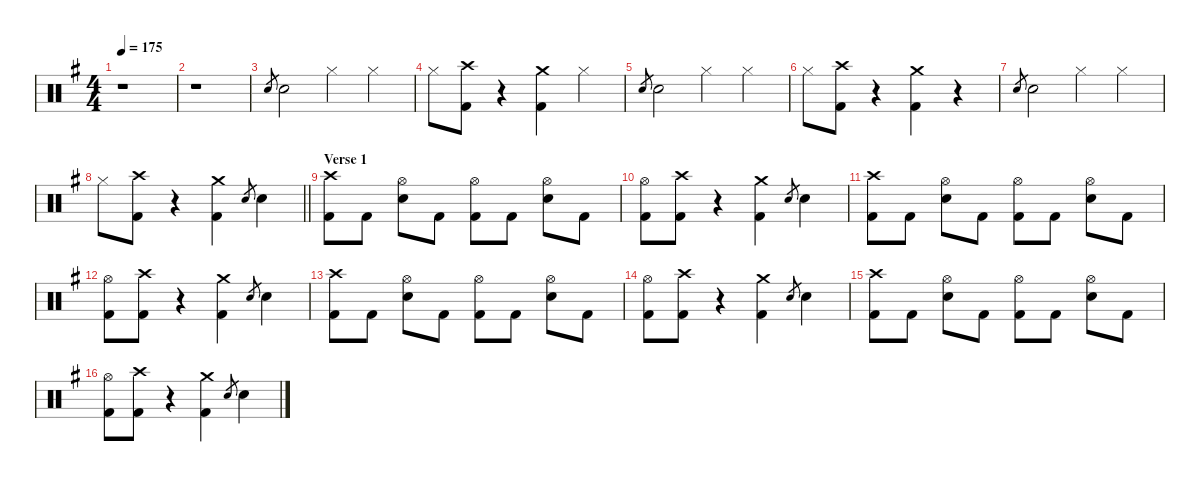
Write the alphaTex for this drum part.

\hideDynamics
\bracketExtendMode nobrackets
\singleTrackTrackNamePolicy hidden
\multiTrackTrackNamePolicy hidden
\firstSystemTrackNameMode fullname
\firstSystemTrackNameOrientation horizontal
\otherSystemsTrackNameOrientation horizontal
\track ("Drumkit" "Drums") {instrument percussion}
\staff {score}
\articulation defaults
\ts (4 4)
\beaming (8 2 2 2 2)
\tempo 175
\clef neutral
\ks g
r.1{dy mf beam Down} |
r.1{beam Down} |
"Snare (hit) 2"{acc forcenatural}.8{gr beam Up} "Snare (hit) 2"{acc forcenatural}.2{dy f beam Down} "Hi-Hat (closed)"{acc forcenatural}.4{beam Down} "Hi-Hat (closed)"{acc forcenatural}.4{beam Down} |
"Hi-Hat (closed)"{acc forcenatural}.8{beam Down} ("Crash high (hit)"{acc forcenatural} "Kick (hit) 2"{acc forcenatural}).8{beam Down} r.4{beam Down} ("Crash medium (hit)"{acc forcenatural} "Kick (hit) 2"{acc forcenatural}).4{beam Down} "Hi-Hat (closed)"{acc forcenatural}.4{beam Down} |
"Snare (hit) 2"{acc forcenatural}.8{gr dy mf beam Up} "Snare (hit) 2"{acc forcenatural}.2{dy f beam Down} "Hi-Hat (closed)"{acc forcenatural}.4{beam Down} "Hi-Hat (closed)"{acc forcenatural}.4{beam Down} |
"Hi-Hat (closed)"{acc forcenatural}.8{beam Down} ("Crash high (hit)"{acc forcenatural} "Kick (hit) 2"{acc forcenatural}).8{beam Down} r.4{beam Down} ("Crash medium (hit)"{acc forcenatural} "Kick (hit) 2"{acc forcenatural}).4{beam Down} r.4{beam Down} |
"Snare (hit) 2"{acc forcenatural}.8{gr dy mf beam Up} "Snare (hit) 2"{acc forcenatural}.2{dy f beam Down} "Hi-Hat (closed)"{acc forcenatural}.4{beam Down} "Hi-Hat (closed)"{acc forcenatural}.4{beam Down} |
\barLineRight lightlight "Hi-Hat (closed)"{acc forcenatural}.8{beam Down}
("Crash high (hit)"{acc forcenatural} "Kick (hit) 2"{acc forcenatural}).8{beam Down} r.4{beam Down} ("Crash medium (hit)"{acc forcenatural} "Kick (hit) 2"{acc forcenatural}).4{beam Down} "Snare (hit) 2"{acc forcenatural}.8{gr dy mf beam Up} "Snare (hit) 2"{acc forcenatural}.4{dy f beam Down} |
\section ("" "Verse 1")
("Crash high (hit)"{acc forcenatural} "Kick (hit) 2"{acc forcenatural}).8{beam Down} "Kick (hit) 2"{acc forcenatural}.8{dy fff beam Down} ("Hi-Hat (open)"{acc forcenatural} "Snare (hit) 2"{acc forcenatural}).8{dy f beam Down} "Kick (hit) 2"{acc forcenatural}.8{dy fff beam Down} ("Hi-Hat (open)"{acc forcenatural} "Kick (hit) 2"{acc forcenatural}).8{dy f beam Down} "Kick (hit) 2"{acc forcenatural}.8{dy fff beam Down} ("Hi-Hat (open)"{acc forcenatural} "Snare (hit) 2"{acc forcenatural}).8{dy f beam Down} "Kick (hit) 2"{acc forcenatural}.8{dy fff beam Down} |
("Hi-Hat (open)"{acc forcenatural} "Kick (hit) 2"{acc forcenatural}).8{dy f beam Down} ("Crash high (hit)"{acc forcenatural} "Kick (hit) 2"{acc forcenatural}).8{beam Down} r.4{beam Down} ("Crash medium (hit)"{acc forcenatural} "Kick (hit) 2"{acc forcenatural}).4{beam Down} "Snare (hit) 2"{acc forcenatural}.8{gr dy mf beam Up} "Snare (hit) 2"{acc forcenatural}.4{dy f beam Down} |
("Crash high (hit)"{acc forcenatural} "Kick (hit) 2"{acc forcenatural}).8{beam Down} "Kick (hit) 2"{acc forcenatural}.8{dy fff beam Down} ("Hi-Hat (open)"{acc forcenatural} "Snare (hit) 2"{acc forcenatural}).8{dy f beam Down} "Kick (hit) 2"{acc forcenatural}.8{dy fff beam Down} ("Hi-Hat (open)"{acc forcenatural} "Kick (hit) 2"{acc forcenatural}).8{dy f beam Down} "Kick (hit) 2"{acc forcenatural}.8{dy fff beam Down} ("Hi-Hat (open)"{acc forcenatural} "Snare (hit) 2"{acc forcenatural}).8{dy f beam Down} "Kick (hit) 2"{acc forcenatural}.8{dy fff beam Down} |
("Hi-Hat (open)"{acc forcenatural} "Kick (hit) 2"{acc forcenatural}).8{dy f beam Down} ("Crash high (hit)"{acc forcenatural} "Kick (hit) 2"{acc forcenatural}).8{beam Down} r.4{beam Down} ("Crash medium (hit)"{acc forcenatural} "Kick (hit) 2"{acc forcenatural}).4{beam Down} "Snare (hit) 2"{acc forcenatural}.8{gr dy mf beam Up} "Snare (hit) 2"{acc forcenatural}.4{dy f beam Down} |
("Crash high (hit)"{acc forcenatural} "Kick (hit) 2"{acc forcenatural}).8{beam Down} "Kick (hit) 2"{acc forcenatural}.8{dy fff beam Down} ("Hi-Hat (open)"{acc forcenatural} "Snare (hit) 2"{acc forcenatural}).8{dy f beam Down} "Kick (hit) 2"{acc forcenatural}.8{dy fff beam Down} ("Hi-Hat (open)"{acc forcenatural} "Kick (hit) 2"{acc forcenatural}).8{dy f beam Down} "Kick (hit) 2"{acc forcenatural}.8{dy fff beam Down} ("Hi-Hat (open)"{acc forcenatural} "Snare (hit) 2"{acc forcenatural}).8{dy f beam Down} "Kick (hit) 2"{acc forcenatural}.8{dy fff beam Down} |
("Hi-Hat (open)"{acc forcenatural} "Kick (hit) 2"{acc forcenatural}).8{dy f beam Down} ("Crash high (hit)"{acc forcenatural} "Kick (hit) 2"{acc forcenatural}).8{beam Down} r.4{beam Down} ("Crash medium (hit)"{acc forcenatural} "Kick (hit) 2"{acc forcenatural}).4{beam Down} "Snare (hit) 2"{acc forcenatural}.8{gr dy mf beam Up} "Snare (hit) 2"{acc forcenatural}.4{dy f beam Down} |
("Crash high (hit)"{acc forcenatural} "Kick (hit) 2"{acc forcenatural}).8{beam Down} "Kick (hit) 2"{acc forcenatural}.8{dy fff beam Down} ("Hi-Hat (open)"{acc forcenatural} "Snare (hit) 2"{acc forcenatural}).8{dy f beam Down} "Kick (hit) 2"{acc forcenatural}.8{dy fff beam Down} ("Hi-Hat (open)"{acc forcenatural} "Kick (hit) 2"{acc forcenatural}).8{dy f beam Down} "Kick (hit) 2"{acc forcenatural}.8{dy fff beam Down} ("Hi-Hat (open)"{acc forcenatural} "Snare (hit) 2"{acc forcenatural}).8{dy f beam Down} "Kick (hit) 2"{acc forcenatural}.8{dy fff beam Down} |
("Hi-Hat (open)"{acc forcenatural} "Kick (hit) 2"{acc forcenatural}).8{dy f beam Down} ("Crash high (hit)"{acc forcenatural} "Kick (hit) 2"{acc forcenatural}).8{beam Down} r.4{beam Down} ("Crash medium (hit)"{acc forcenatural} "Kick (hit) 2"{acc forcenatural}).4{beam Down} "Snare (hit) 2"{acc forcenatural}.8{gr dy mf beam Up} "Snare (hit) 2"{acc forcenatural}.4{dy f beam Down}
